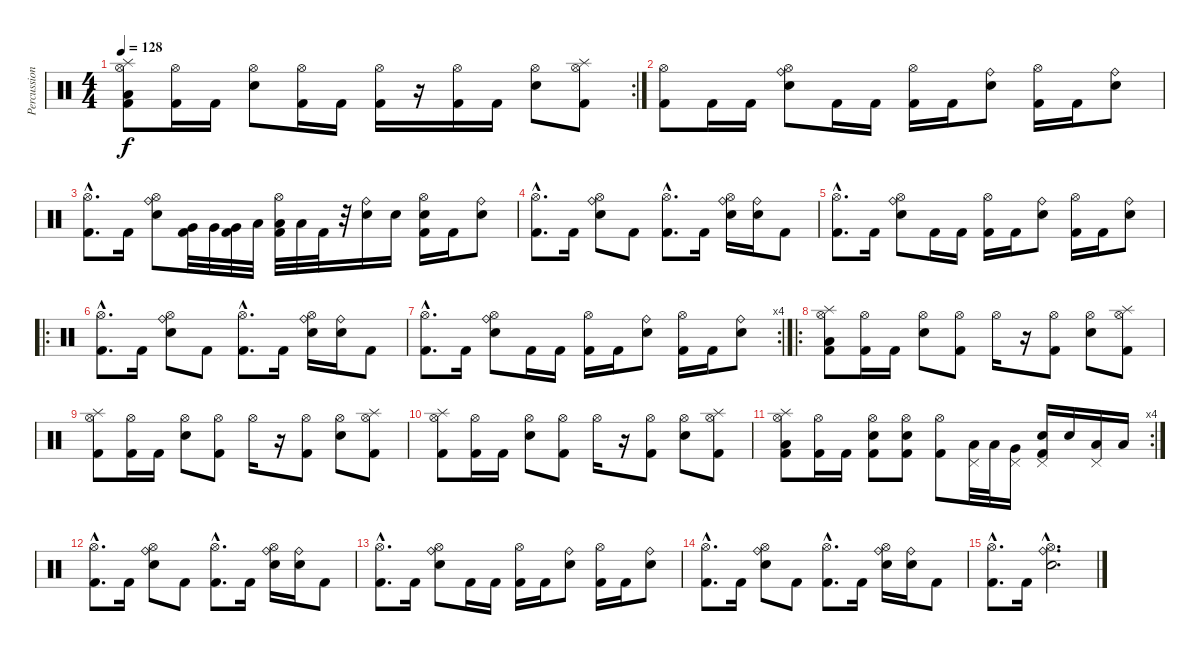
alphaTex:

\track ("Percussion" "Percussion") {instrument percussion}
\staff {score}
\articulation defaults
\rc 2
\ts (4 4)
\tempo 128
\clef neutral
\ks c
("Splash (hit)" "Hi-Hat (open)" "Low Floor Tom (hit)" "Kick (hit) 2").8{dy f} ("Hi-Hat (open)" "Kick (hit) 2").16 "Kick (hit) 2".16 ("Hi-Hat (open)" "Electric Snare (hit)").8 ("Hi-Hat (open)" "Kick (hit) 2").16 "Kick (hit) 2".16 ("Hi-Hat (open)" "Kick (hit) 2").16 r.16 ("Hi-Hat (open)" "Kick (hit) 2").16 "Kick (hit) 2".16 ("Hi-Hat (open)" "Electric Snare (hit)").8 ("Splash (hit)" "Hi-Hat (open)" "Kick (hit) 2").8 |
("Hi-Hat (open)" "Kick (hit) 2").8 "Kick (hit) 2".16 "Kick (hit) 2".16 ("Ride (bell)" "Hi-Hat (open)" "Electric Snare (hit)").8 "Kick (hit) 2".16 "Kick (hit) 2".16 ("Hi-Hat (open)" "Kick (hit) 2").16 "Kick (hit) 2".16 ("Ride (bell)" "Electric Snare (hit)").8 ("Hi-Hat (open)" "Kick (hit) 2").16 "Kick (hit) 2".16 ("Ride (bell)" "Electric Snare (hit)").8 |
("Hi-Hat (open)"{hac} "Kick (hit) 2"{hac}).8{d} "Kick (hit) 2".16 ("Ride (bell)" "Hi-Hat (open)" "Electric Snare (hit)").8 ("Very Low Tom (hit)" "Kick (hit) 2").32 "Very Low Tom (hit)".32 ("Very Low Tom (hit)" "Kick (hit) 2").32 "Low Floor Tom (hit)".32 ("Hi-Hat (open)" "Low Tom (hit)" "Kick (hit) 2").32 "Low Tom (hit)".32 "Kick (hit) 2".32 r.32 ("Ride (bell)" "Electric Snare (hit)").16 "Electric Snare (hit)".16 ("Hi-Hat (open)" "Electric Snare (hit)" "Kick (hit) 2").16 "Kick (hit) 2".16 ("Ride (bell)" "Electric Snare (hit)").8 |
("Hi-Hat (open)"{hac} "Kick (hit) 2"{hac}).8{d} "Kick (hit) 2".16 ("Ride (bell)" "Hi-Hat (open)" "Electric Snare (hit)").8 "Kick (hit) 2".8 ("Hi-Hat (open)"{hac} "Kick (hit) 2"{hac}).8{d} "Kick (hit) 2".16 ("Ride (bell)" "Hi-Hat (open)" "Electric Snare (hit)").16 ("Ride (bell)" "Electric Snare (hit)").16 "Kick (hit) 2".8 |
("Hi-Hat (open)"{hac} "Kick (hit) 2"{hac}).8{d} "Kick (hit) 2".16 ("Ride (bell)" "Hi-Hat (open)" "Electric Snare (hit)").8 "Kick (hit) 2".16 "Kick (hit) 2".16 ("Hi-Hat (open)" "Kick (hit) 2").16 "Kick (hit) 2".16 ("Ride (bell)" "Electric Snare (hit)").8 ("Hi-Hat (open)" "Kick (hit) 2").16 "Kick (hit) 2".16 ("Ride (bell)" "Electric Snare (hit)").8 |
\ro
("Hi-Hat (open)"{hac} "Kick (hit) 2"{hac}).8{d} "Kick (hit) 2".16 ("Ride (bell)" "Hi-Hat (open)" "Electric Snare (hit)").8 "Kick (hit) 2".8 ("Hi-Hat (open)"{hac} "Kick (hit) 2"{hac}).8{d} "Kick (hit) 2".16 ("Ride (bell)" "Hi-Hat (open)" "Electric Snare (hit)").16 ("Ride (bell)" "Electric Snare (hit)").16 "Kick (hit) 2".8 |
\rc 4
("Hi-Hat (open)"{hac} "Kick (hit) 2"{hac}).8{d} "Kick (hit) 2".16 ("Ride (bell)" "Hi-Hat (open)" "Electric Snare (hit)").8 "Kick (hit) 2".16 "Kick (hit) 2".16 ("Hi-Hat (open)" "Kick (hit) 2").16 "Kick (hit) 2".16 ("Ride (bell)" "Electric Snare (hit)").8 ("Hi-Hat (open)" "Kick (hit) 2").16 "Kick (hit) 2".16 ("Ride (bell)" "Electric Snare (hit)").8 |
\ro
("Splash (hit)" "Hi-Hat (open)" "Low Floor Tom (hit)" "Kick (hit) 2").8 ("Hi-Hat (open)" "Kick (hit) 2").16 "Kick (hit) 2".16 ("Hi-Hat (open)" "Electric Snare (hit)").8 ("Hi-Hat (open)" "Kick (hit) 2").8 "Hi-Hat (open)".16 r.16 ("Hi-Hat (open)" "Kick (hit) 2").8 ("Hi-Hat (open)" "Electric Snare (hit)").8 ("Splash (hit)" "Hi-Hat (open)" "Kick (hit) 2").8 |
("Splash (hit)" "Hi-Hat (open)" "Kick (hit) 2").8 ("Hi-Hat (open)" "Kick (hit) 2").16 "Kick (hit) 2".16 ("Hi-Hat (open)" "Electric Snare (hit)").8 ("Hi-Hat (open)" "Kick (hit) 2").8 "Hi-Hat (open)".16 r.16 ("Hi-Hat (open)" "Kick (hit) 2").8 ("Hi-Hat (open)" "Electric Snare (hit)").8 ("Splash (hit)" "Hi-Hat (open)" "Kick (hit) 2").8 |
("Splash (hit)" "Hi-Hat (open)" "Kick (hit) 2").8 ("Hi-Hat (open)" "Kick (hit) 2").16 "Kick (hit) 2".16 ("Hi-Hat (open)" "Electric Snare (hit)").8 ("Hi-Hat (open)" "Kick (hit) 2").8 "Hi-Hat (open)".16 r.16 ("Hi-Hat (open)" "Kick (hit) 2").8 ("Hi-Hat (open)" "Electric Snare (hit)").8 ("Splash (hit)" "Hi-Hat (open)" "Kick (hit) 2").8 |
\rc 4
("Splash (hit)" "Hi-Hat (open)" "Low Floor Tom (hit)" "Kick (hit) 2").8 ("Hi-Hat (open)" "Kick (hit) 2").16 "Kick (hit) 2".16 ("Hi-Hat (open)" "Electric Snare (hit)" "Kick (hit) 2").8 ("Hi-Hat (open)" "Electric Snare (hit)" "Kick (hit) 2").8 ("Hi-Hat (open)" "Kick (hit) 2").8 ("Pedal Hi-Hat (hit)" "Low Tom (hit)").32 "Low Tom (hit)".32 ("Pedal Hi-Hat (hit)" "Very Low Tom (hit)").16 ("Pedal Hi-Hat (hit)" "Electric Snare (hit)" "Kick (hit) 2").16 "Electric Snare (hit)".16 ("Pedal Hi-Hat (hit)" "Low Floor Tom (hit)").16 "Low Floor Tom (hit)".16 |
("Hi-Hat (open)"{hac} "Kick (hit) 2"{hac}).8{d} "Kick (hit) 2".16 ("Ride (bell)" "Hi-Hat (open)" "Electric Snare (hit)").8 "Kick (hit) 2".8 ("Hi-Hat (open)"{hac} "Kick (hit) 2"{hac}).8{d} "Kick (hit) 2".16 ("Ride (bell)" "Hi-Hat (open)" "Electric Snare (hit)").16 ("Ride (bell)" "Electric Snare (hit)").16 "Kick (hit) 2".8 |
("Hi-Hat (open)"{hac} "Kick (hit) 2"{hac}).8{d} "Kick (hit) 2".16 ("Ride (bell)" "Hi-Hat (open)" "Electric Snare (hit)").8 "Kick (hit) 2".16 "Kick (hit) 2".16 ("Hi-Hat (open)" "Kick (hit) 2").16 "Kick (hit) 2".16 ("Ride (bell)" "Electric Snare (hit)").8 ("Hi-Hat (open)" "Kick (hit) 2").16 "Kick (hit) 2".16 ("Ride (bell)" "Electric Snare (hit)").8 |
("Hi-Hat (open)"{hac} "Kick (hit) 2"{hac}).8{d} "Kick (hit) 2".16 ("Ride (bell)" "Hi-Hat (open)" "Electric Snare (hit)").8 "Kick (hit) 2".8 ("Hi-Hat (open)"{hac} "Kick (hit) 2"{hac}).8{d} "Kick (hit) 2".16 ("Ride (bell)" "Hi-Hat (open)" "Electric Snare (hit)").16 ("Ride (bell)" "Electric Snare (hit)").16 "Kick (hit) 2".8 |
("Hi-Hat (open)"{hac} "Kick (hit) 2"{hac}).8{d} "Kick (hit) 2".16 ("Ride (bell)"{hac} "Hi-Hat (open)"{hac} "Electric Snare (hit)"{hac}).2{d}
